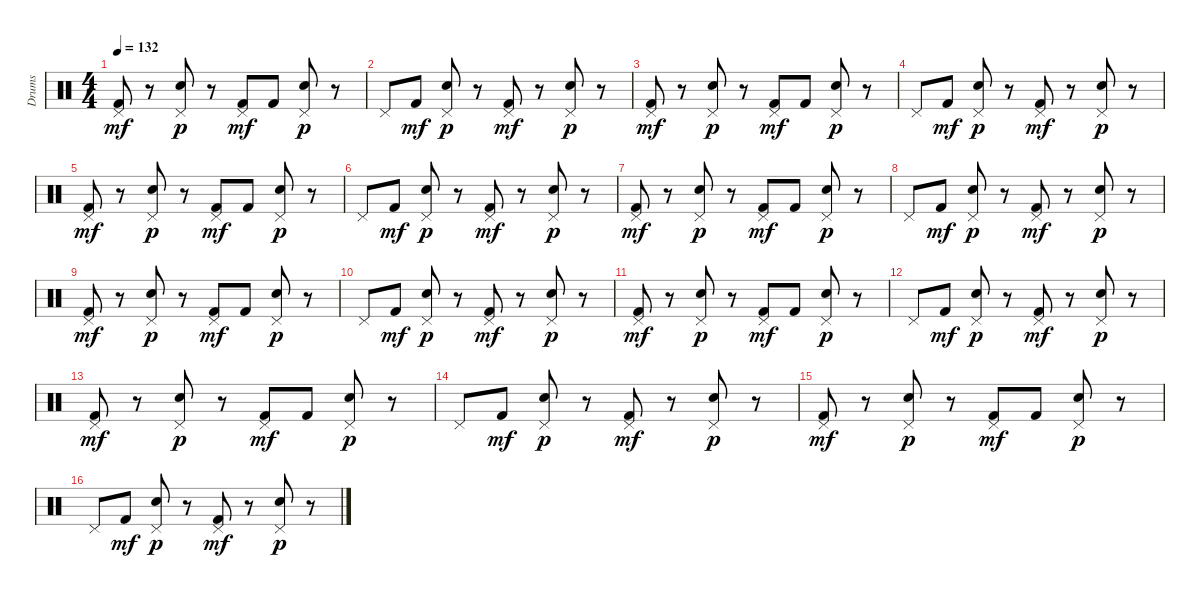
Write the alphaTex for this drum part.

\track ("Drums" "Drums") {instrument percussion}
\staff {score}
\articulation defaults
\ts (4 4)
\tempo 132
\clef neutral
\ks c
("Pedal Hi-Hat (hit)" "Kick (hit) 2").8{dy mf} r.8 ("Pedal Hi-Hat (hit)" "Snare (hit) 2").8{dy p} r.8 ("Pedal Hi-Hat (hit)" "Kick (hit) 2").8{dy mf} "Kick (hit) 2".8 ("Pedal Hi-Hat (hit)" "Snare (hit) 2").8{dy p} r.8 |
"Pedal Hi-Hat (hit)".8 "Kick (hit) 2".8{dy mf} ("Pedal Hi-Hat (hit)" "Snare (hit) 2").8{dy p} r.8 ("Pedal Hi-Hat (hit)" "Kick (hit) 2").8{dy mf} r.8 ("Pedal Hi-Hat (hit)" "Snare (hit) 2").8{dy p} r.8 |
("Pedal Hi-Hat (hit)" "Kick (hit) 2").8{dy mf} r.8 ("Pedal Hi-Hat (hit)" "Snare (hit) 2").8{dy p} r.8 ("Pedal Hi-Hat (hit)" "Kick (hit) 2").8{dy mf} "Kick (hit) 2".8 ("Pedal Hi-Hat (hit)" "Snare (hit) 2").8{dy p} r.8 |
"Pedal Hi-Hat (hit)".8 "Kick (hit) 2".8{dy mf} ("Pedal Hi-Hat (hit)" "Snare (hit) 2").8{dy p} r.8 ("Pedal Hi-Hat (hit)" "Kick (hit) 2").8{dy mf} r.8 ("Pedal Hi-Hat (hit)" "Snare (hit) 2").8{dy p} r.8 |
("Pedal Hi-Hat (hit)" "Kick (hit) 2").8{dy mf} r.8 ("Pedal Hi-Hat (hit)" "Snare (hit) 2").8{dy p} r.8 ("Pedal Hi-Hat (hit)" "Kick (hit) 2").8{dy mf} "Kick (hit) 2".8 ("Pedal Hi-Hat (hit)" "Snare (hit) 2").8{dy p} r.8 |
"Pedal Hi-Hat (hit)".8 "Kick (hit) 2".8{dy mf} ("Pedal Hi-Hat (hit)" "Snare (hit) 2").8{dy p} r.8 ("Pedal Hi-Hat (hit)" "Kick (hit) 2").8{dy mf} r.8 ("Pedal Hi-Hat (hit)" "Snare (hit) 2").8{dy p} r.8 |
("Pedal Hi-Hat (hit)" "Kick (hit) 2").8{dy mf} r.8 ("Pedal Hi-Hat (hit)" "Snare (hit) 2").8{dy p} r.8 ("Pedal Hi-Hat (hit)" "Kick (hit) 2").8{dy mf} "Kick (hit) 2".8 ("Pedal Hi-Hat (hit)" "Snare (hit) 2").8{dy p} r.8 |
"Pedal Hi-Hat (hit)".8 "Kick (hit) 2".8{dy mf} ("Pedal Hi-Hat (hit)" "Snare (hit) 2").8{dy p} r.8 ("Pedal Hi-Hat (hit)" "Kick (hit) 2").8{dy mf} r.8 ("Pedal Hi-Hat (hit)" "Snare (hit) 2").8{dy p} r.8 |
("Pedal Hi-Hat (hit)" "Kick (hit) 2").8{dy mf} r.8 ("Pedal Hi-Hat (hit)" "Snare (hit) 2").8{dy p} r.8 ("Pedal Hi-Hat (hit)" "Kick (hit) 2").8{dy mf} "Kick (hit) 2".8 ("Pedal Hi-Hat (hit)" "Snare (hit) 2").8{dy p} r.8 |
"Pedal Hi-Hat (hit)".8 "Kick (hit) 2".8{dy mf} ("Pedal Hi-Hat (hit)" "Snare (hit) 2").8{dy p} r.8 ("Pedal Hi-Hat (hit)" "Kick (hit) 2").8{dy mf} r.8 ("Pedal Hi-Hat (hit)" "Snare (hit) 2").8{dy p} r.8 |
("Pedal Hi-Hat (hit)" "Kick (hit) 2").8{dy mf} r.8 ("Pedal Hi-Hat (hit)" "Snare (hit) 2").8{dy p} r.8 ("Pedal Hi-Hat (hit)" "Kick (hit) 2").8{dy mf} "Kick (hit) 2".8 ("Pedal Hi-Hat (hit)" "Snare (hit) 2").8{dy p} r.8 |
"Pedal Hi-Hat (hit)".8 "Kick (hit) 2".8{dy mf} ("Pedal Hi-Hat (hit)" "Snare (hit) 2").8{dy p} r.8 ("Pedal Hi-Hat (hit)" "Kick (hit) 2").8{dy mf} r.8 ("Pedal Hi-Hat (hit)" "Snare (hit) 2").8{dy p} r.8 |
("Pedal Hi-Hat (hit)" "Kick (hit) 2").8{dy mf} r.8 ("Pedal Hi-Hat (hit)" "Snare (hit) 2").8{dy p} r.8 ("Pedal Hi-Hat (hit)" "Kick (hit) 2").8{dy mf} "Kick (hit) 2".8 ("Pedal Hi-Hat (hit)" "Snare (hit) 2").8{dy p} r.8 |
"Pedal Hi-Hat (hit)".8 "Kick (hit) 2".8{dy mf} ("Pedal Hi-Hat (hit)" "Snare (hit) 2").8{dy p} r.8 ("Pedal Hi-Hat (hit)" "Kick (hit) 2").8{dy mf} r.8 ("Pedal Hi-Hat (hit)" "Snare (hit) 2").8{dy p} r.8 |
("Pedal Hi-Hat (hit)" "Kick (hit) 2").8{dy mf} r.8 ("Pedal Hi-Hat (hit)" "Snare (hit) 2").8{dy p} r.8 ("Pedal Hi-Hat (hit)" "Kick (hit) 2").8{dy mf} "Kick (hit) 2".8 ("Pedal Hi-Hat (hit)" "Snare (hit) 2").8{dy p} r.8 |
"Pedal Hi-Hat (hit)".8 "Kick (hit) 2".8{dy mf} ("Pedal Hi-Hat (hit)" "Snare (hit) 2").8{dy p} r.8 ("Pedal Hi-Hat (hit)" "Kick (hit) 2").8{dy mf} r.8 ("Pedal Hi-Hat (hit)" "Snare (hit) 2").8{dy p} r.8
